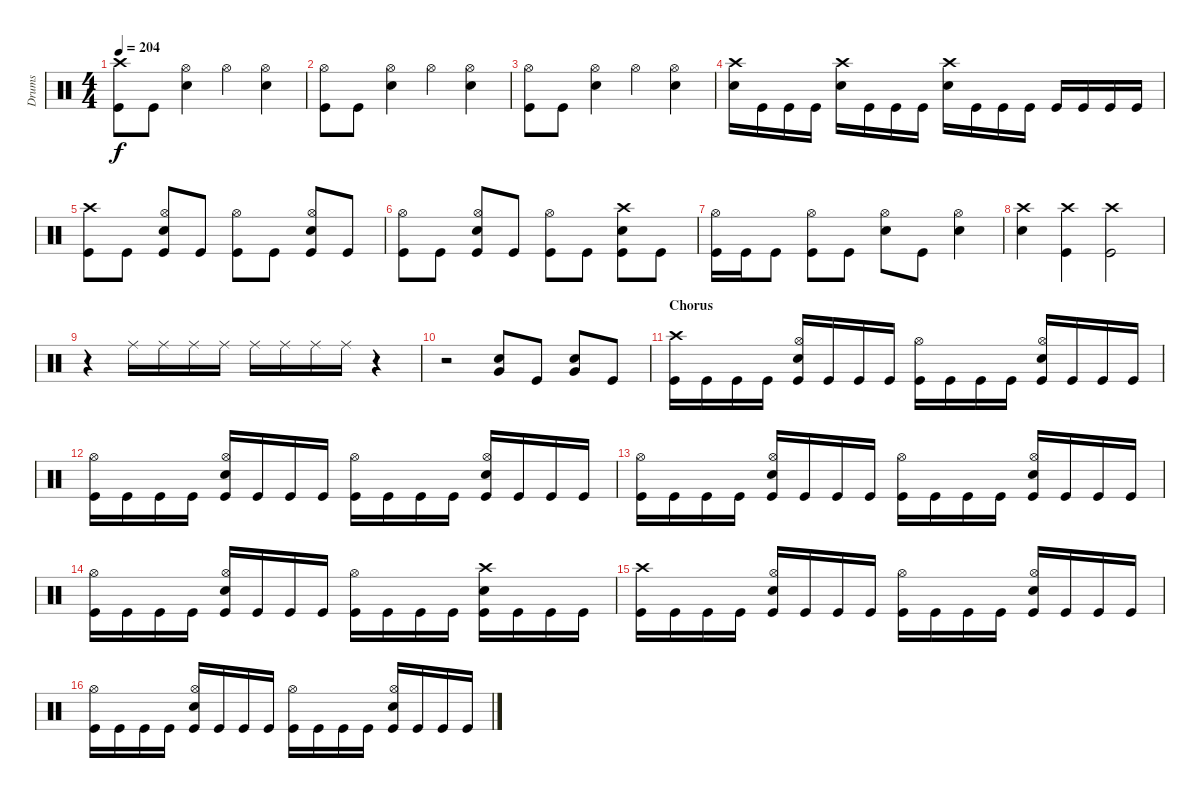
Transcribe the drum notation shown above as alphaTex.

\track ("Drums" "Drums") {instrument percussion}
\staff {score}
\articulation defaults
\ts (4 4)
\tempo 204
\clef neutral
\ks c
("Crash high (hit)" "Kick (hit)").8{dy f} "Kick (hit)".8 ("Hi-Hat (open)" "Snare (hit) 2").4 "Hi-Hat (open)".4 ("Hi-Hat (open)" "Snare (hit) 2").4 |
("Hi-Hat (open)" "Kick (hit)").8 "Kick (hit)".8 ("Hi-Hat (open)" "Snare (hit) 2").4 "Hi-Hat (open)".4 ("Hi-Hat (open)" "Snare (hit) 2").4 |
("Hi-Hat (open)" "Kick (hit)").8 "Kick (hit)".8 ("Hi-Hat (open)" "Snare (hit) 2").4 "Hi-Hat (open)".4 ("Hi-Hat (open)" "Snare (hit) 2").4 |
("Crash high (hit)" "Snare (hit) 2").16 "Kick (hit)".16 "Kick (hit)".16 "Kick (hit)".16 ("Crash high (hit)" "Snare (hit) 2").16 "Kick (hit)".16 "Kick (hit)".16 "Kick (hit)".16 ("Crash high (hit)" "Snare (hit) 2").16 "Kick (hit)".16 "Kick (hit)".16 "Kick (hit)".16 "Kick (hit)".16 "Kick (hit)".16 "Kick (hit)".16 "Kick (hit)".16 |
("Crash high (hit)" "Kick (hit)").8 "Kick (hit)".8 ("Hi-Hat (open)" "Snare (hit) 2" "Kick (hit)").8 "Kick (hit)".8 ("Hi-Hat (open)" "Kick (hit)").8 "Kick (hit)".8 ("Hi-Hat (open)" "Snare (hit) 2" "Kick (hit)").8 "Kick (hit)".8 |
("Hi-Hat (open)" "Kick (hit)").8 "Kick (hit)".8 ("Hi-Hat (open)" "Snare (hit) 2" "Kick (hit)").8 "Kick (hit)".8 ("Hi-Hat (open)" "Kick (hit)").8 "Kick (hit)".8 ("Crash high (hit)" "Snare (hit) 2" "Kick (hit)").8 "Kick (hit)".8 |
("Hi-Hat (open)" "Kick (hit)").16 "Kick (hit)".16 "Kick (hit)".8 ("Hi-Hat (open)" "Kick (hit)").8 "Kick (hit)".8 ("Hi-Hat (open)" "Snare (hit) 2").8 "Kick (hit)".8 ("Hi-Hat (open)" "Snare (hit) 2").4 |
("Crash high (hit)" "Snare (hit) 2").4 ("Crash high (hit)" "Kick (hit)").4 ("Crash high (hit)" "Kick (hit)").2 |
r.4 "Ride (middle)".16 "Ride (middle)".16 "Ride (middle)".16 "Ride (middle)".16 "Ride (middle)".16 "Ride (middle)".16 "Ride (middle)".16 "Ride (middle)".16 r.4 |
r.2 ("Snare (hit) 2" "Very Low Tom (hit)").8 "Kick (hit)".8 ("Snare (hit) 2" "Very Low Tom (hit)").8 "Kick (hit)".8 |
\section ("" "Chorus")
("Crash high (hit)" "Kick (hit)").16 "Kick (hit)".16 "Kick (hit)".16 "Kick (hit)".16 ("Hi-Hat (open)" "Snare (hit) 2" "Kick (hit)").16 "Kick (hit)".16 "Kick (hit)".16 "Kick (hit)".16 ("Hi-Hat (open)" "Kick (hit)").16 "Kick (hit)".16 "Kick (hit)".16 "Kick (hit)".16 ("Hi-Hat (open)" "Snare (hit) 2" "Kick (hit)").16 "Kick (hit)".16 "Kick (hit)".16 "Kick (hit)".16 |
("Hi-Hat (open)" "Kick (hit)").16 "Kick (hit)".16 "Kick (hit)".16 "Kick (hit)".16 ("Hi-Hat (open)" "Snare (hit) 2" "Kick (hit)").16 "Kick (hit)".16 "Kick (hit)".16 "Kick (hit)".16 ("Hi-Hat (open)" "Kick (hit)").16 "Kick (hit)".16 "Kick (hit)".16 "Kick (hit)".16 ("Hi-Hat (open)" "Snare (hit) 2" "Kick (hit)").16 "Kick (hit)".16 "Kick (hit)".16 "Kick (hit)".16 |
("Hi-Hat (open)" "Kick (hit)").16 "Kick (hit)".16 "Kick (hit)".16 "Kick (hit)".16 ("Hi-Hat (open)" "Snare (hit) 2" "Kick (hit)").16 "Kick (hit)".16 "Kick (hit)".16 "Kick (hit)".16 ("Hi-Hat (open)" "Kick (hit)").16 "Kick (hit)".16 "Kick (hit)".16 "Kick (hit)".16 ("Hi-Hat (open)" "Snare (hit) 2" "Kick (hit)").16 "Kick (hit)".16 "Kick (hit)".16 "Kick (hit)".16 |
("Hi-Hat (open)" "Kick (hit)").16 "Kick (hit)".16 "Kick (hit)".16 "Kick (hit)".16 ("Hi-Hat (open)" "Snare (hit) 2" "Kick (hit)").16 "Kick (hit)".16 "Kick (hit)".16 "Kick (hit)".16 ("Hi-Hat (open)" "Kick (hit)").16 "Kick (hit)".16 "Kick (hit)".16 "Kick (hit)".16 ("Crash high (hit)" "Snare (hit) 2" "Kick (hit)").16 "Kick (hit)".16 "Kick (hit)".16 "Kick (hit)".16 |
("Crash high (hit)" "Kick (hit)").16 "Kick (hit)".16 "Kick (hit)".16 "Kick (hit)".16 ("Hi-Hat (open)" "Snare (hit) 2" "Kick (hit)").16 "Kick (hit)".16 "Kick (hit)".16 "Kick (hit)".16 ("Hi-Hat (open)" "Kick (hit)").16 "Kick (hit)".16 "Kick (hit)".16 "Kick (hit)".16 ("Hi-Hat (open)" "Snare (hit) 2" "Kick (hit)").16 "Kick (hit)".16 "Kick (hit)".16 "Kick (hit)".16 |
("Hi-Hat (open)" "Kick (hit)").16 "Kick (hit)".16 "Kick (hit)".16 "Kick (hit)".16 ("Hi-Hat (open)" "Snare (hit) 2" "Kick (hit)").16 "Kick (hit)".16 "Kick (hit)".16 "Kick (hit)".16 ("Hi-Hat (open)" "Kick (hit)").16 "Kick (hit)".16 "Kick (hit)".16 "Kick (hit)".16 ("Hi-Hat (open)" "Snare (hit) 2" "Kick (hit)").16 "Kick (hit)".16 "Kick (hit)".16 "Kick (hit)".16
